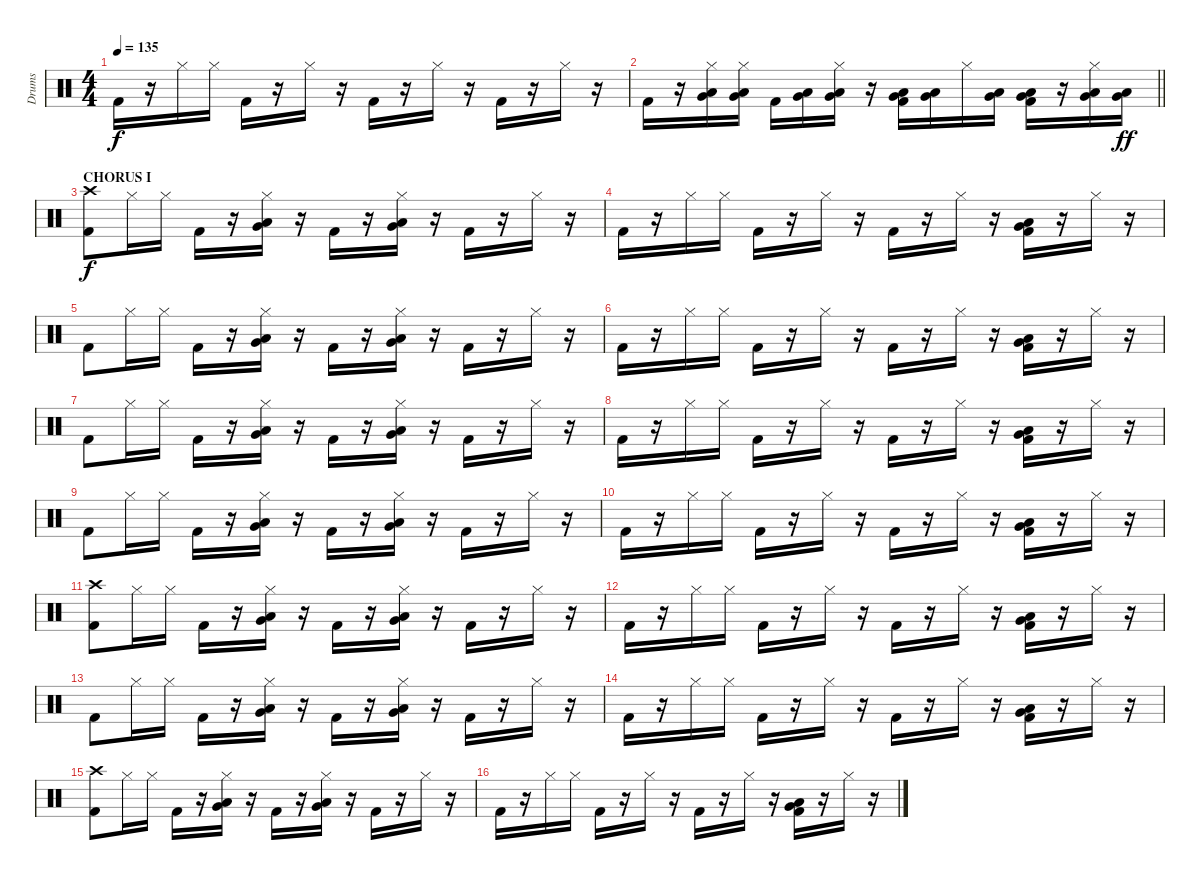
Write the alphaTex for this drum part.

\track ("Drums" "Drums") {instrument percussion}
\staff {score}
\articulation defaults
\ts (4 4)
\tempo 135
\clef neutral
\ks c "Kick (hit) 2".16{dy f}
r.16 "Hi-Hat (closed)".16 "Hi-Hat (closed)".16 "Kick (hit) 2".16 r.16 "Hi-Hat (closed)".16 r.16 "Kick (hit) 2".16 r.16 "Hi-Hat (closed)".16 r.16 "Kick (hit) 2".16 r.16 "Hi-Hat (closed)".16 r.16 |
\barLineRight lightlight "Kick (hit) 2".16
r.16 ("Hi-Hat (closed)" "Low Tom (hit)" "Very Low Tom (hit)").16 ("Hi-Hat (closed)" "Low Tom (hit)" "Very Low Tom (hit)").16 "Kick (hit) 2".16 ("Low Tom (hit)" "Very Low Tom (hit)").16 ("Hi-Hat (closed)" "Low Tom (hit)" "Very Low Tom (hit)").16 r.16 ("Kick (hit) 2" "Low Tom (hit)" "Very Low Tom (hit)").16 ("Low Tom (hit)" "Very Low Tom (hit)").16 "Hi-Hat (closed)".16 ("Low Tom (hit)" "Very Low Tom (hit)").16 ("Kick (hit) 2" "Low Tom (hit)" "Very Low Tom (hit)").16 r.16 ("Hi-Hat (closed)" "Low Tom (hit)" "Very Low Tom (hit)").16 ("Low Tom (hit)" "Very Low Tom (hit)").16{dy ff} |
\section ("" "CHORUS I")
("Kick (hit) 2" "Crash high (hit)").8{dy f} "Hi-Hat (closed)".16 "Hi-Hat (closed)".16 "Kick (hit) 2".16 r.16 ("Hi-Hat (closed)" "Very Low Tom (hit)" "Low Floor Tom (hit)").16 r.16 "Kick (hit) 2".16 r.16 ("Hi-Hat (closed)" "Low Floor Tom (hit)" "Very Low Tom (hit)").16 r.16 "Kick (hit) 2".16 r.16 "Hi-Hat (closed)".16 r.16 |
"Kick (hit) 2".16 r.16 "Hi-Hat (closed)".16 "Hi-Hat (closed)".16 "Kick (hit) 2".16 r.16 "Hi-Hat (closed)".16 r.16 "Kick (hit) 2".16 r.16 "Hi-Hat (closed)".16 r.16 ("Kick (hit) 2" "Low Floor Tom (hit)" "Very Low Tom (hit)").16 r.16 "Hi-Hat (closed)".16 r.16 |
"Kick (hit) 2".8 "Hi-Hat (closed)".16 "Hi-Hat (closed)".16 "Kick (hit) 2".16 r.16 ("Hi-Hat (closed)" "Very Low Tom (hit)" "Low Floor Tom (hit)").16 r.16 "Kick (hit) 2".16 r.16 ("Hi-Hat (closed)" "Low Floor Tom (hit)" "Very Low Tom (hit)").16 r.16 "Kick (hit) 2".16 r.16 "Hi-Hat (closed)".16 r.16 |
"Kick (hit) 2".16 r.16 "Hi-Hat (closed)".16 "Hi-Hat (closed)".16 "Kick (hit) 2".16 r.16 "Hi-Hat (closed)".16 r.16 "Kick (hit) 2".16 r.16 "Hi-Hat (closed)".16 r.16 ("Kick (hit) 2" "Low Floor Tom (hit)" "Very Low Tom (hit)").16 r.16 "Hi-Hat (closed)".16 r.16 |
"Kick (hit) 2".8 "Hi-Hat (closed)".16 "Hi-Hat (closed)".16 "Kick (hit) 2".16 r.16 ("Hi-Hat (closed)" "Very Low Tom (hit)" "Low Floor Tom (hit)").16 r.16 "Kick (hit) 2".16 r.16 ("Hi-Hat (closed)" "Low Floor Tom (hit)" "Very Low Tom (hit)").16 r.16 "Kick (hit) 2".16 r.16 "Hi-Hat (closed)".16 r.16 |
"Kick (hit) 2".16 r.16 "Hi-Hat (closed)".16 "Hi-Hat (closed)".16 "Kick (hit) 2".16 r.16 "Hi-Hat (closed)".16 r.16 "Kick (hit) 2".16 r.16 "Hi-Hat (closed)".16 r.16 ("Kick (hit) 2" "Low Floor Tom (hit)" "Very Low Tom (hit)").16 r.16 "Hi-Hat (closed)".16 r.16 |
"Kick (hit) 2".8 "Hi-Hat (closed)".16 "Hi-Hat (closed)".16 "Kick (hit) 2".16 r.16 ("Hi-Hat (closed)" "Very Low Tom (hit)" "Low Floor Tom (hit)").16 r.16 "Kick (hit) 2".16 r.16 ("Hi-Hat (closed)" "Low Floor Tom (hit)" "Very Low Tom (hit)").16 r.16 "Kick (hit) 2".16 r.16 "Hi-Hat (closed)".16 r.16 |
"Kick (hit) 2".16 r.16 "Hi-Hat (closed)".16 "Hi-Hat (closed)".16 "Kick (hit) 2".16 r.16 "Hi-Hat (closed)".16 r.16 "Kick (hit) 2".16 r.16 "Hi-Hat (closed)".16 r.16 ("Kick (hit) 2" "Low Floor Tom (hit)" "Very Low Tom (hit)").16 r.16 "Hi-Hat (closed)".16 r.16 |
("Kick (hit) 2" "Crash high (hit)").8 "Hi-Hat (closed)".16 "Hi-Hat (closed)".16 "Kick (hit) 2".16 r.16 ("Hi-Hat (closed)" "Very Low Tom (hit)" "Low Floor Tom (hit)").16 r.16 "Kick (hit) 2".16 r.16 ("Hi-Hat (closed)" "Low Floor Tom (hit)" "Very Low Tom (hit)").16 r.16 "Kick (hit) 2".16 r.16 "Hi-Hat (closed)".16 r.16 |
"Kick (hit) 2".16 r.16 "Hi-Hat (closed)".16 "Hi-Hat (closed)".16 "Kick (hit) 2".16 r.16 "Hi-Hat (closed)".16 r.16 "Kick (hit) 2".16 r.16 "Hi-Hat (closed)".16 r.16 ("Kick (hit) 2" "Low Floor Tom (hit)" "Very Low Tom (hit)").16 r.16 "Hi-Hat (closed)".16 r.16 |
"Kick (hit) 2".8 "Hi-Hat (closed)".16 "Hi-Hat (closed)".16 "Kick (hit) 2".16 r.16 ("Hi-Hat (closed)" "Very Low Tom (hit)" "Low Floor Tom (hit)").16 r.16 "Kick (hit) 2".16 r.16 ("Hi-Hat (closed)" "Low Floor Tom (hit)" "Very Low Tom (hit)").16 r.16 "Kick (hit) 2".16 r.16 "Hi-Hat (closed)".16 r.16 |
"Kick (hit) 2".16 r.16 "Hi-Hat (closed)".16 "Hi-Hat (closed)".16 "Kick (hit) 2".16 r.16 "Hi-Hat (closed)".16 r.16 "Kick (hit) 2".16 r.16 "Hi-Hat (closed)".16 r.16 ("Kick (hit) 2" "Low Floor Tom (hit)" "Very Low Tom (hit)").16 r.16 "Hi-Hat (closed)".16 r.16 |
("Kick (hit) 2" "Crash high (hit)").8 "Hi-Hat (closed)".16 "Hi-Hat (closed)".16 "Kick (hit) 2".16 r.16 ("Hi-Hat (closed)" "Very Low Tom (hit)" "Low Floor Tom (hit)").16 r.16 "Kick (hit) 2".16 r.16 ("Hi-Hat (closed)" "Low Floor Tom (hit)" "Very Low Tom (hit)").16 r.16 "Kick (hit) 2".16 r.16 "Hi-Hat (closed)".16 r.16 |
"Kick (hit) 2".16 r.16 "Hi-Hat (closed)".16 "Hi-Hat (closed)".16 "Kick (hit) 2".16 r.16 "Hi-Hat (closed)".16 r.16 "Kick (hit) 2".16 r.16 "Hi-Hat (closed)".16 r.16 ("Kick (hit) 2" "Low Floor Tom (hit)" "Very Low Tom (hit)").16 r.16 "Hi-Hat (closed)".16 r.16
